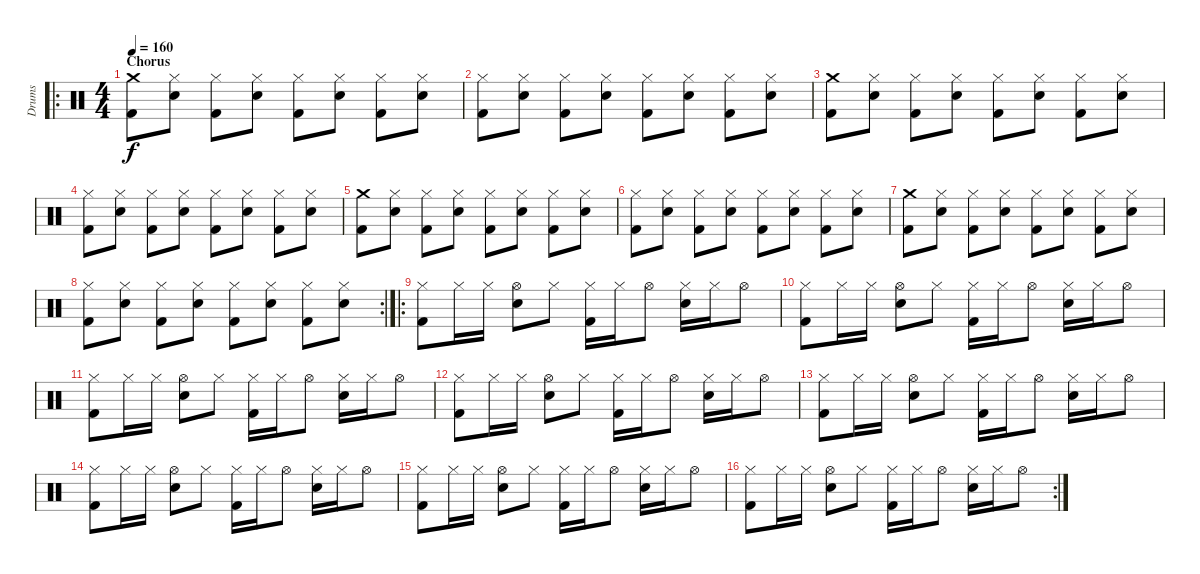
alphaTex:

\track ("Drums" "Drums") {instrument percussion}
\staff {score}
\articulation defaults
\ro
\ts (4 4)
\section ("" "Chorus")
\tempo 160
\clef neutral
\ks c
("Crash medium (hit)" "Kick (hit) 2").8{dy f} ("Hi-Hat (closed)" "Snare (hit) 2").8 ("Hi-Hat (closed)" "Kick (hit) 2").8 ("Hi-Hat (closed)" "Snare (hit) 2").8 ("Hi-Hat (closed)" "Kick (hit) 2").8 ("Hi-Hat (closed)" "Snare (hit) 2").8 ("Hi-Hat (closed)" "Kick (hit) 2").8 ("Hi-Hat (closed)" "Snare (hit) 2").8 |
("Hi-Hat (closed)" "Kick (hit) 2").8 ("Hi-Hat (closed)" "Snare (hit) 2").8 ("Hi-Hat (closed)" "Kick (hit) 2").8 ("Hi-Hat (closed)" "Snare (hit) 2").8 ("Hi-Hat (closed)" "Kick (hit) 2").8 ("Hi-Hat (closed)" "Snare (hit) 2").8 ("Hi-Hat (closed)" "Kick (hit) 2").8 ("Hi-Hat (closed)" "Snare (hit) 2").8 |
("Crash medium (hit)" "Kick (hit) 2").8 ("Hi-Hat (closed)" "Snare (hit) 2").8 ("Hi-Hat (closed)" "Kick (hit) 2").8 ("Hi-Hat (closed)" "Snare (hit) 2").8 ("Hi-Hat (closed)" "Kick (hit) 2").8 ("Hi-Hat (closed)" "Snare (hit) 2").8 ("Hi-Hat (closed)" "Kick (hit) 2").8 ("Hi-Hat (closed)" "Snare (hit) 2").8 |
("Hi-Hat (closed)" "Kick (hit) 2").8 ("Hi-Hat (closed)" "Snare (hit) 2").8 ("Hi-Hat (closed)" "Kick (hit) 2").8 ("Hi-Hat (closed)" "Snare (hit) 2").8 ("Hi-Hat (closed)" "Kick (hit) 2").8 ("Hi-Hat (closed)" "Snare (hit) 2").8 ("Hi-Hat (closed)" "Kick (hit) 2").8 ("Hi-Hat (closed)" "Snare (hit) 2").8 |
("Crash medium (hit)" "Kick (hit) 2").8 ("Hi-Hat (closed)" "Snare (hit) 2").8 ("Hi-Hat (closed)" "Kick (hit) 2").8 ("Hi-Hat (closed)" "Snare (hit) 2").8 ("Hi-Hat (closed)" "Kick (hit) 2").8 ("Hi-Hat (closed)" "Snare (hit) 2").8 ("Hi-Hat (closed)" "Kick (hit) 2").8 ("Hi-Hat (closed)" "Snare (hit) 2").8 |
("Hi-Hat (closed)" "Kick (hit) 2").8 ("Hi-Hat (closed)" "Snare (hit) 2").8 ("Hi-Hat (closed)" "Kick (hit) 2").8 ("Hi-Hat (closed)" "Snare (hit) 2").8 ("Hi-Hat (closed)" "Kick (hit) 2").8 ("Hi-Hat (closed)" "Snare (hit) 2").8 ("Hi-Hat (closed)" "Kick (hit) 2").8 ("Hi-Hat (closed)" "Snare (hit) 2").8 |
("Crash medium (hit)" "Kick (hit) 2").8 ("Hi-Hat (closed)" "Snare (hit) 2").8 ("Hi-Hat (closed)" "Kick (hit) 2").8 ("Hi-Hat (closed)" "Snare (hit) 2").8 ("Hi-Hat (closed)" "Kick (hit) 2").8 ("Hi-Hat (closed)" "Snare (hit) 2").8 ("Hi-Hat (closed)" "Kick (hit) 2").8 ("Hi-Hat (closed)" "Snare (hit) 2").8 |
\rc 2
("Hi-Hat (closed)" "Kick (hit) 2").8 ("Hi-Hat (closed)" "Snare (hit) 2").8 ("Hi-Hat (closed)" "Kick (hit) 2").8 ("Hi-Hat (closed)" "Snare (hit) 2").8 ("Hi-Hat (closed)" "Kick (hit) 2").8 ("Hi-Hat (closed)" "Snare (hit) 2").8 ("Hi-Hat (closed)" "Kick (hit) 2").8 ("Hi-Hat (closed)" "Snare (hit) 2").8 |
\ro
("Hi-Hat (closed)" "Kick (hit) 2").8 "Hi-Hat (closed)".16 "Hi-Hat (closed)".16 ("Hi-Hat (open)" "Snare (hit) 2").8 "Hi-Hat (closed)".8 ("Hi-Hat (closed)" "Kick (hit) 2").16 "Hi-Hat (closed)".16 "Hi-Hat (open)".8 ("Hi-Hat (closed)" "Snare (hit) 2").16 "Hi-Hat (closed)".16 "Hi-Hat (open)".8 |
("Hi-Hat (closed)" "Kick (hit) 2").8 "Hi-Hat (closed)".16 "Hi-Hat (closed)".16 ("Hi-Hat (open)" "Snare (hit) 2").8 "Hi-Hat (closed)".8 ("Hi-Hat (closed)" "Kick (hit) 2").16 "Hi-Hat (closed)".16 "Hi-Hat (open)".8 ("Hi-Hat (closed)" "Snare (hit) 2").16 "Hi-Hat (closed)".16 "Hi-Hat (open)".8 |
("Hi-Hat (closed)" "Kick (hit) 2").8 "Hi-Hat (closed)".16 "Hi-Hat (closed)".16 ("Hi-Hat (open)" "Snare (hit) 2").8 "Hi-Hat (closed)".8 ("Hi-Hat (closed)" "Kick (hit) 2").16 "Hi-Hat (closed)".16 "Hi-Hat (open)".8 ("Hi-Hat (closed)" "Snare (hit) 2").16 "Hi-Hat (closed)".16 "Hi-Hat (open)".8 |
("Hi-Hat (closed)" "Kick (hit) 2").8 "Hi-Hat (closed)".16 "Hi-Hat (closed)".16 ("Hi-Hat (open)" "Snare (hit) 2").8 "Hi-Hat (closed)".8 ("Hi-Hat (closed)" "Kick (hit) 2").16 "Hi-Hat (closed)".16 "Hi-Hat (open)".8 ("Hi-Hat (closed)" "Snare (hit) 2").16 "Hi-Hat (closed)".16 "Hi-Hat (open)".8 |
("Hi-Hat (closed)" "Kick (hit) 2").8 "Hi-Hat (closed)".16 "Hi-Hat (closed)".16 ("Hi-Hat (open)" "Snare (hit) 2").8 "Hi-Hat (closed)".8 ("Hi-Hat (closed)" "Kick (hit) 2").16 "Hi-Hat (closed)".16 "Hi-Hat (open)".8 ("Hi-Hat (closed)" "Snare (hit) 2").16 "Hi-Hat (closed)".16 "Hi-Hat (open)".8 |
("Hi-Hat (closed)" "Kick (hit) 2").8 "Hi-Hat (closed)".16 "Hi-Hat (closed)".16 ("Hi-Hat (open)" "Snare (hit) 2").8 "Hi-Hat (closed)".8 ("Hi-Hat (closed)" "Kick (hit) 2").16 "Hi-Hat (closed)".16 "Hi-Hat (open)".8 ("Hi-Hat (closed)" "Snare (hit) 2").16 "Hi-Hat (closed)".16 "Hi-Hat (open)".8 |
("Hi-Hat (closed)" "Kick (hit) 2").8 "Hi-Hat (closed)".16 "Hi-Hat (closed)".16 ("Hi-Hat (open)" "Snare (hit) 2").8 "Hi-Hat (closed)".8 ("Hi-Hat (closed)" "Kick (hit) 2").16 "Hi-Hat (closed)".16 "Hi-Hat (open)".8 ("Hi-Hat (closed)" "Snare (hit) 2").16 "Hi-Hat (closed)".16 "Hi-Hat (open)".8 |
\rc 2
("Hi-Hat (closed)" "Kick (hit) 2").8 "Hi-Hat (closed)".16 "Hi-Hat (closed)".16 ("Hi-Hat (open)" "Snare (hit) 2").8 "Hi-Hat (closed)".8 ("Hi-Hat (closed)" "Kick (hit) 2").16 "Hi-Hat (closed)".16 "Hi-Hat (open)".8 ("Hi-Hat (closed)" "Snare (hit) 2").16 "Hi-Hat (closed)".16 "Hi-Hat (open)".8
